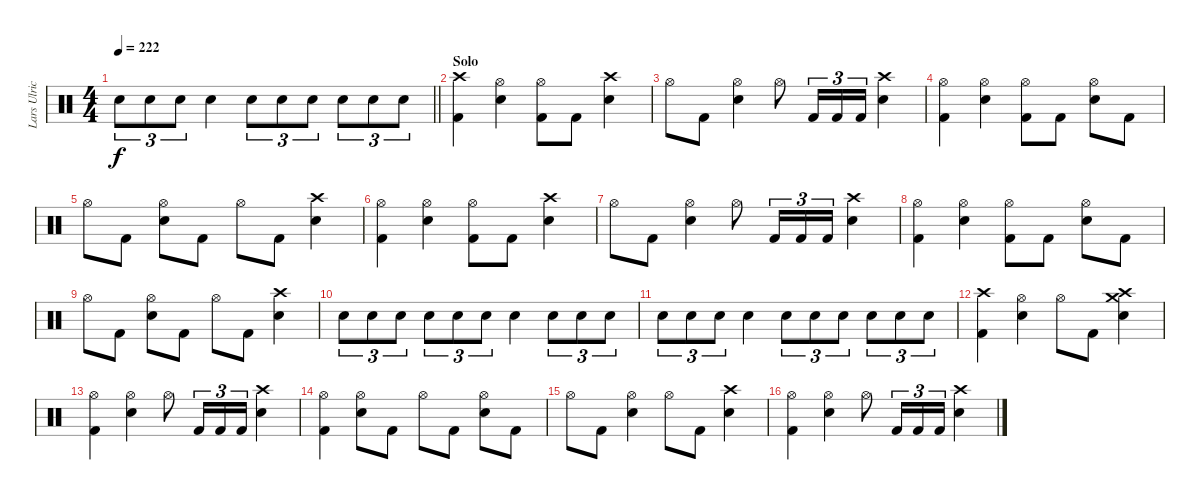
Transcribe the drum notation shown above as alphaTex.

\track ("Lars Ulrich" "Lars Ulric") {instrument percussion}
\staff {score}
\articulation defaults
\ts (4 4)
\tempo 222
\clef neutral
\barLineRight lightlight
\ks c "Electric Snare (hit)".8{tu (3 2) dy f} "Electric Snare (hit)".8{tu (3 2)} "Electric Snare (hit)".8{tu (3 2)} "Electric Snare (hit)".4 "Electric Snare (hit)".8{tu (3 2)} "Electric Snare (hit)".8{tu (3 2)} "Electric Snare (hit)".8{tu (3 2)} "Electric Snare (hit)".8{tu (3 2)} "Electric Snare (hit)".8{tu (3 2)} "Electric Snare (hit)".8{tu (3 2)}
|
\section ("" "Solo")
("Crash high (hit)" "Kick (hit) 2").4 ("Hi-Hat (open)" "Electric Snare (hit)").4 ("Hi-Hat (open)" "Kick (hit) 2").8 "Kick (hit) 2".8 ("Crash high (hit)" "Electric Snare (hit)").4 |
"Hi-Hat (open)".8 "Kick (hit) 2".8 ("Hi-Hat (open)" "Electric Snare (hit)").4 "Hi-Hat (open)".8 "Kick (hit) 2".16{tu (3 2)} "Kick (hit) 2".16{tu (3 2)} "Kick (hit) 2".16{tu (3 2)} ("Crash high (hit)" "Electric Snare (hit)").4 |
("Hi-Hat (open)" "Kick (hit) 2").4 ("Hi-Hat (open)" "Electric Snare (hit)").4 ("Hi-Hat (open)" "Kick (hit) 2").8 "Kick (hit) 2".8 ("Hi-Hat (open)" "Electric Snare (hit)").8 "Kick (hit) 2".8 |
"Hi-Hat (open)".8 "Kick (hit) 2".8 ("Hi-Hat (open)" "Electric Snare (hit)").8 "Kick (hit) 2".8 "Hi-Hat (open)".8 "Kick (hit) 2".8 ("Crash high (hit)" "Electric Snare (hit)").4 |
("Hi-Hat (open)" "Kick (hit) 2").4 ("Hi-Hat (open)" "Electric Snare (hit)").4 ("Hi-Hat (open)" "Kick (hit) 2").8 "Kick (hit) 2".8 ("Crash high (hit)" "Electric Snare (hit)").4 |
"Hi-Hat (open)".8 "Kick (hit) 2".8 ("Hi-Hat (open)" "Electric Snare (hit)").4 "Hi-Hat (open)".8 "Kick (hit) 2".16{tu (3 2)} "Kick (hit) 2".16{tu (3 2)} "Kick (hit) 2".16{tu (3 2)} ("Crash high (hit)" "Electric Snare (hit)").4 |
("Hi-Hat (open)" "Kick (hit) 2").4 ("Hi-Hat (open)" "Electric Snare (hit)").4 ("Hi-Hat (open)" "Kick (hit) 2").8 "Kick (hit) 2".8 ("Hi-Hat (open)" "Electric Snare (hit)").8 "Kick (hit) 2".8 |
"Hi-Hat (open)".8 "Kick (hit) 2".8 ("Hi-Hat (open)" "Electric Snare (hit)").8 "Kick (hit) 2".8 "Hi-Hat (open)".8 "Kick (hit) 2".8 ("Crash high (hit)" "Electric Snare (hit)").4 |
"Electric Snare (hit)".8{tu (3 2)} "Electric Snare (hit)".8{tu (3 2)} "Electric Snare (hit)".8{tu (3 2)} "Electric Snare (hit)".8{tu (3 2)} "Electric Snare (hit)".8{tu (3 2)} "Electric Snare (hit)".8{tu (3 2)} "Electric Snare (hit)".4 "Electric Snare (hit)".8{tu (3 2)} "Electric Snare (hit)".8{tu (3 2)} "Electric Snare (hit)".8{tu (3 2)} |
"Electric Snare (hit)".8{tu (3 2)} "Electric Snare (hit)".8{tu (3 2)} "Electric Snare (hit)".8{tu (3 2)} "Electric Snare (hit)".4 "Electric Snare (hit)".8{tu (3 2)} "Electric Snare (hit)".8{tu (3 2)} "Electric Snare (hit)".8{tu (3 2)} "Electric Snare (hit)".8{tu (3 2)} "Electric Snare (hit)".8{tu (3 2)} "Electric Snare (hit)".8{tu (3 2)} |
("Crash high (hit)" "Kick (hit) 2").4 ("Hi-Hat (open)" "Electric Snare (hit)").4 "Hi-Hat (open)".8 "Kick (hit) 2".8 ("Crash high (hit)" "Crash medium (hit)" "Electric Snare (hit)").4 |
("Hi-Hat (open)" "Kick (hit) 2").4 ("Hi-Hat (open)" "Electric Snare (hit)").4 "Hi-Hat (open)".8 "Kick (hit) 2".16{tu (3 2)} "Kick (hit) 2".16{tu (3 2)} "Kick (hit) 2".16{tu (3 2)} ("Crash high (hit)" "Electric Snare (hit)").4 |
("Hi-Hat (open)" "Kick (hit) 2").4 ("Hi-Hat (open)" "Electric Snare (hit)").8 "Kick (hit) 2".8 "Hi-Hat (open)".8 "Kick (hit) 2".8 ("Hi-Hat (open)" "Electric Snare (hit)").8 "Kick (hit) 2".8 |
"Hi-Hat (open)".8 "Kick (hit) 2".8 ("Hi-Hat (open)" "Electric Snare (hit)").4 "Hi-Hat (open)".8 "Kick (hit) 2".8 ("Crash high (hit)" "Electric Snare (hit)").4 |
("Hi-Hat (open)" "Kick (hit) 2").4 ("Hi-Hat (open)" "Electric Snare (hit)").4 "Hi-Hat (open)".8 "Kick (hit) 2".16{tu (3 2)} "Kick (hit) 2".16{tu (3 2)} "Kick (hit) 2".16{tu (3 2)} ("Crash high (hit)" "Electric Snare (hit)").4
